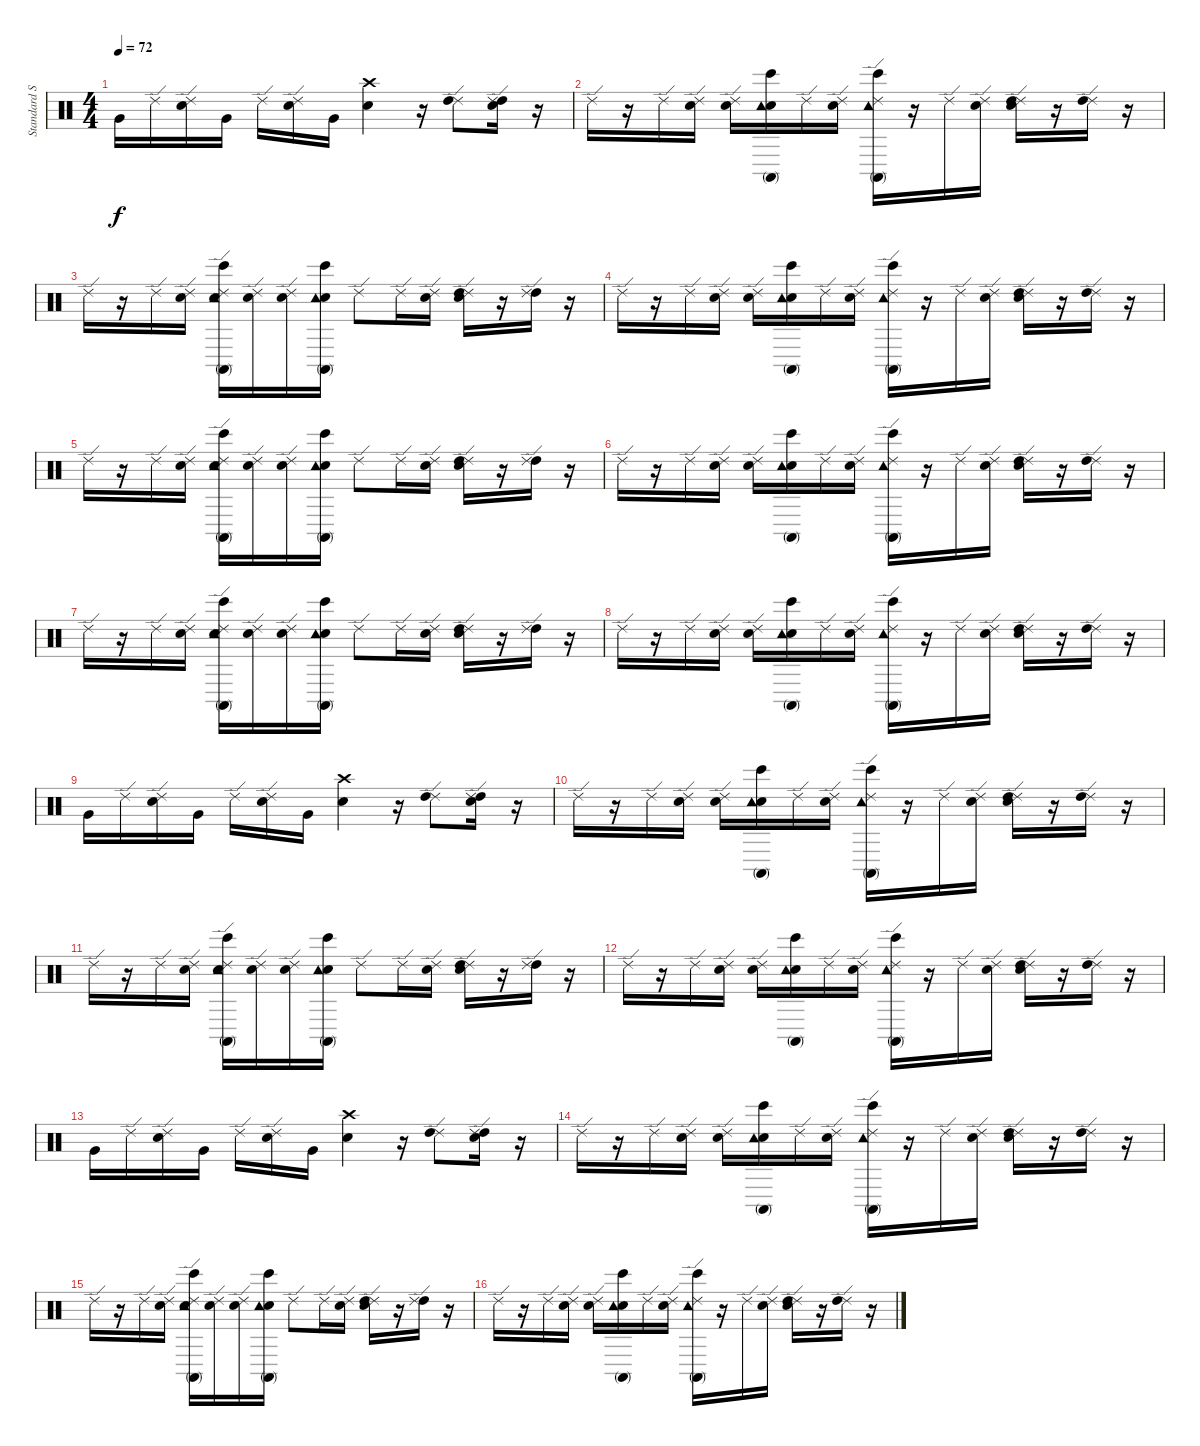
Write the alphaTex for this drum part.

\track ("Standard Set" "Standard S") {instrument percussion}
\staff {score}
\articulation defaults
\ts (4 4)
\tempo 72
\clef neutral
\ks c "Very Low Tom (hit)".16{dy f} "Ride (edge) 2".16
("Snare (hit)" "Ride (edge) 2").16 "Very Low Tom (hit)".16 "Ride (edge) 2".16 ("Snare (hit)" "Ride (edge) 2").16 "Very Low Tom (hit)".16 ("Snare (hit)" "Crash high (hit)").4 r.16 ("Ride (edge) 2" "High Tom (hit)").8 ("Snare (hit)" "High Tom (hit)" "Ride (edge) 2").16 r.16 |
"Ride (edge) 2".16 r.16 "Ride (edge) 2".16 ("Snare (hit)" "Ride (edge) 2").16 ("Snare (hit)" "Ride (edge) 2").16 ("Snare (hit)" "Conga high (mute)" "Bongo High (hit)" "Tambourine (hit)").16 "Ride (edge) 2".16 ("Snare (hit)" "Ride (edge) 2").16 ("Bongo High (hit)" "Conga high (mute)" "Ride (edge) 2" "Tambourine (hit)").16 r.16 "Ride (edge) 2".16 ("Snare (hit)" "Ride (edge) 2").16 ("Snare (hit)" "Ride (edge) 2" "High Tom (hit)").16 r.16 ("Ride (edge) 2" "High Tom (hit)").16 r.16 |
"Ride (edge) 2".16 r.16 "Ride (edge) 2".16 ("Snare (hit)" "Ride (edge) 2").16 ("Snare (hit)" "Ride (edge) 2" "Conga high (mute)" "Bongo High (hit)" "Tambourine (hit)").16 ("Snare (hit)" "Ride (edge) 2").16 ("Snare (hit)" "Ride (edge) 2").16 ("Snare (hit)" "Conga high (mute)" "Bongo High (hit)" "Tambourine (hit)").16 "Ride (edge) 2".8 "Ride (edge) 2".16 ("Snare (hit)" "Ride (edge) 2").16 ("Snare (hit)" "Ride (edge) 2" "High Tom (hit)").16 r.16 ("High Tom (hit)" "Ride (edge) 2").16 r.16 |
"Ride (edge) 2".16 r.16 "Ride (edge) 2".16 ("Snare (hit)" "Ride (edge) 2").16 ("Snare (hit)" "Ride (edge) 2").16 ("Snare (hit)" "Conga high (mute)" "Bongo High (hit)" "Tambourine (hit)").16 "Ride (edge) 2".16 ("Snare (hit)" "Ride (edge) 2").16 ("Bongo High (hit)" "Conga high (mute)" "Ride (edge) 2" "Tambourine (hit)").16 r.16 "Ride (edge) 2".16 ("Snare (hit)" "Ride (edge) 2").16 ("Snare (hit)" "Ride (edge) 2" "High Tom (hit)").16 r.16 ("Ride (edge) 2" "High Tom (hit)").16 r.16 |
"Ride (edge) 2".16 r.16 "Ride (edge) 2".16 ("Snare (hit)" "Ride (edge) 2").16 ("Snare (hit)" "Ride (edge) 2" "Conga high (mute)" "Bongo High (hit)" "Tambourine (hit)").16 ("Snare (hit)" "Ride (edge) 2").16 ("Snare (hit)" "Ride (edge) 2").16 ("Snare (hit)" "Conga high (mute)" "Bongo High (hit)" "Tambourine (hit)").16 "Ride (edge) 2".8 "Ride (edge) 2".16 ("Snare (hit)" "Ride (edge) 2").16 ("Snare (hit)" "Ride (edge) 2" "High Tom (hit)").16 r.16 ("High Tom (hit)" "Ride (edge) 2").16 r.16 |
"Ride (edge) 2".16 r.16 "Ride (edge) 2".16 ("Snare (hit)" "Ride (edge) 2").16 ("Snare (hit)" "Ride (edge) 2").16 ("Snare (hit)" "Conga high (mute)" "Bongo High (hit)" "Tambourine (hit)").16 "Ride (edge) 2".16 ("Snare (hit)" "Ride (edge) 2").16 ("Bongo High (hit)" "Conga high (mute)" "Ride (edge) 2" "Tambourine (hit)").16 r.16 "Ride (edge) 2".16 ("Snare (hit)" "Ride (edge) 2").16 ("Snare (hit)" "Ride (edge) 2" "High Tom (hit)").16 r.16 ("Ride (edge) 2" "High Tom (hit)").16 r.16 |
"Ride (edge) 2".16 r.16 "Ride (edge) 2".16 ("Snare (hit)" "Ride (edge) 2").16 ("Snare (hit)" "Ride (edge) 2" "Conga high (mute)" "Bongo High (hit)" "Tambourine (hit)").16 ("Snare (hit)" "Ride (edge) 2").16 ("Snare (hit)" "Ride (edge) 2").16 ("Snare (hit)" "Conga high (mute)" "Bongo High (hit)" "Tambourine (hit)").16 "Ride (edge) 2".8 "Ride (edge) 2".16 ("Snare (hit)" "Ride (edge) 2").16 ("Snare (hit)" "Ride (edge) 2" "High Tom (hit)").16 r.16 ("High Tom (hit)" "Ride (edge) 2").16 r.16 |
"Ride (edge) 2".16 r.16 "Ride (edge) 2".16 ("Snare (hit)" "Ride (edge) 2").16 ("Snare (hit)" "Ride (edge) 2").16 ("Snare (hit)" "Conga high (mute)" "Bongo High (hit)" "Tambourine (hit)").16 "Ride (edge) 2".16 ("Snare (hit)" "Ride (edge) 2").16 ("Bongo High (hit)" "Conga high (mute)" "Ride (edge) 2" "Tambourine (hit)").16 r.16 "Ride (edge) 2".16 ("Snare (hit)" "Ride (edge) 2").16 ("Snare (hit)" "Ride (edge) 2" "High Tom (hit)").16 r.16 ("Ride (edge) 2" "High Tom (hit)").16 r.16 |
"Very Low Tom (hit)".16 "Ride (edge) 2".16 ("Snare (hit)" "Ride (edge) 2").16 "Very Low Tom (hit)".16 "Ride (edge) 2".16 ("Snare (hit)" "Ride (edge) 2").16 "Very Low Tom (hit)".16 ("Snare (hit)" "Crash high (hit)").4 r.16 ("Ride (edge) 2" "High Tom (hit)").8 ("Snare (hit)" "High Tom (hit)" "Ride (edge) 2").16 r.16 |
"Ride (edge) 2".16 r.16 "Ride (edge) 2".16 ("Snare (hit)" "Ride (edge) 2").16 ("Snare (hit)" "Ride (edge) 2").16 ("Snare (hit)" "Conga high (mute)" "Bongo High (hit)" "Tambourine (hit)").16 "Ride (edge) 2".16 ("Snare (hit)" "Ride (edge) 2").16 ("Bongo High (hit)" "Conga high (mute)" "Ride (edge) 2" "Tambourine (hit)").16 r.16 "Ride (edge) 2".16 ("Snare (hit)" "Ride (edge) 2").16 ("Snare (hit)" "Ride (edge) 2" "High Tom (hit)").16 r.16 ("Ride (edge) 2" "High Tom (hit)").16 r.16 |
"Ride (edge) 2".16 r.16 "Ride (edge) 2".16 ("Snare (hit)" "Ride (edge) 2").16 ("Snare (hit)" "Ride (edge) 2" "Conga high (mute)" "Bongo High (hit)" "Tambourine (hit)").16 ("Snare (hit)" "Ride (edge) 2").16 ("Snare (hit)" "Ride (edge) 2").16 ("Snare (hit)" "Conga high (mute)" "Bongo High (hit)" "Tambourine (hit)").16 "Ride (edge) 2".8 "Ride (edge) 2".16 ("Snare (hit)" "Ride (edge) 2").16 ("Snare (hit)" "Ride (edge) 2" "High Tom (hit)").16 r.16 ("High Tom (hit)" "Ride (edge) 2").16 r.16 |
"Ride (edge) 2".16 r.16 "Ride (edge) 2".16 ("Snare (hit)" "Ride (edge) 2").16 ("Snare (hit)" "Ride (edge) 2").16 ("Snare (hit)" "Conga high (mute)" "Bongo High (hit)" "Tambourine (hit)").16 "Ride (edge) 2".16 ("Snare (hit)" "Ride (edge) 2").16 ("Bongo High (hit)" "Conga high (mute)" "Ride (edge) 2" "Tambourine (hit)").16 r.16 "Ride (edge) 2".16 ("Snare (hit)" "Ride (edge) 2").16 ("Snare (hit)" "Ride (edge) 2" "High Tom (hit)").16 r.16 ("Ride (edge) 2" "High Tom (hit)").16 r.16 |
"Very Low Tom (hit)".16 "Ride (edge) 2".16 ("Snare (hit)" "Ride (edge) 2").16 "Very Low Tom (hit)".16 "Ride (edge) 2".16 ("Snare (hit)" "Ride (edge) 2").16 "Very Low Tom (hit)".16 ("Snare (hit)" "Crash high (hit)").4 r.16 ("Ride (edge) 2" "High Tom (hit)").8 ("Snare (hit)" "High Tom (hit)" "Ride (edge) 2").16 r.16 |
"Ride (edge) 2".16 r.16 "Ride (edge) 2".16 ("Snare (hit)" "Ride (edge) 2").16 ("Snare (hit)" "Ride (edge) 2").16 ("Snare (hit)" "Conga high (mute)" "Bongo High (hit)" "Tambourine (hit)").16 "Ride (edge) 2".16 ("Snare (hit)" "Ride (edge) 2").16 ("Bongo High (hit)" "Conga high (mute)" "Ride (edge) 2" "Tambourine (hit)").16 r.16 "Ride (edge) 2".16 ("Snare (hit)" "Ride (edge) 2").16 ("Snare (hit)" "Ride (edge) 2" "High Tom (hit)").16 r.16 ("Ride (edge) 2" "High Tom (hit)").16 r.16 |
"Ride (edge) 2".16 r.16 "Ride (edge) 2".16 ("Snare (hit)" "Ride (edge) 2").16 ("Snare (hit)" "Ride (edge) 2" "Conga high (mute)" "Bongo High (hit)" "Tambourine (hit)").16 ("Snare (hit)" "Ride (edge) 2").16 ("Snare (hit)" "Ride (edge) 2").16 ("Snare (hit)" "Conga high (mute)" "Bongo High (hit)" "Tambourine (hit)").16 "Ride (edge) 2".8 "Ride (edge) 2".16 ("Snare (hit)" "Ride (edge) 2").16 ("Snare (hit)" "Ride (edge) 2" "High Tom (hit)").16 r.16 ("High Tom (hit)" "Ride (edge) 2").16 r.16 |
"Ride (edge) 2".16 r.16 "Ride (edge) 2".16 ("Snare (hit)" "Ride (edge) 2").16 ("Snare (hit)" "Ride (edge) 2").16 ("Snare (hit)" "Conga high (mute)" "Bongo High (hit)" "Tambourine (hit)").16 "Ride (edge) 2".16 ("Snare (hit)" "Ride (edge) 2").16 ("Bongo High (hit)" "Conga high (mute)" "Ride (edge) 2" "Tambourine (hit)").16 r.16 "Ride (edge) 2".16 ("Snare (hit)" "Ride (edge) 2").16 ("Snare (hit)" "Ride (edge) 2" "High Tom (hit)").16 r.16 ("Ride (edge) 2" "High Tom (hit)").16 r.16
